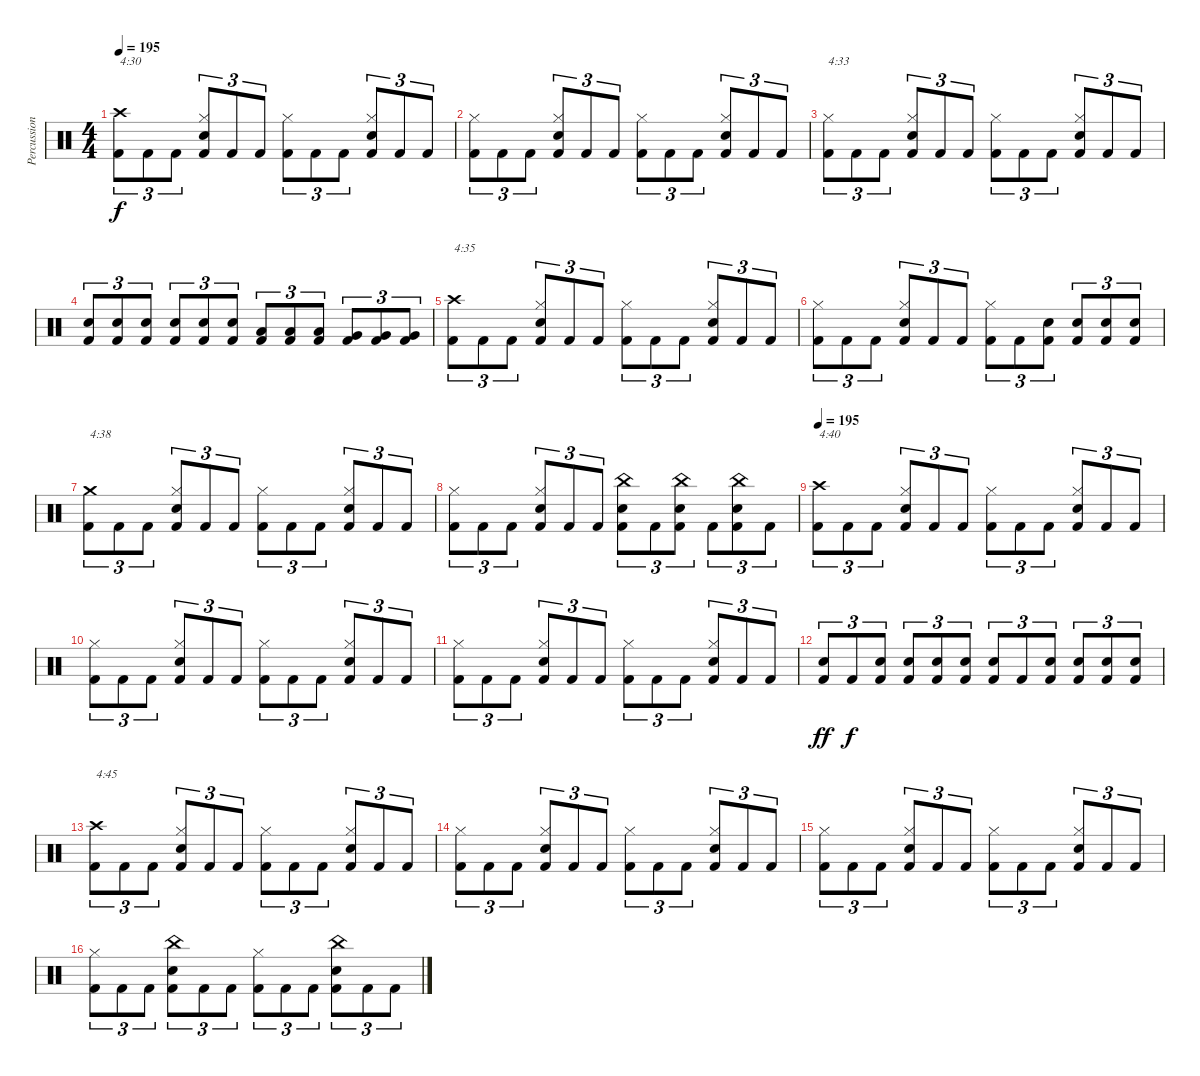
\track ("Percussion" "Percussion") {instrument percussion}
\staff {score}
\articulation defaults
\ts (4 4)
\tempo 195
\clef neutral
\ks c
("Crash high (hit)" "Kick (hit) 2").8{tu (3 2) txt "4:30" dy f} "Kick (hit) 2".8{tu (3 2)} "Kick (hit) 2".8{tu (3 2)} ("Hi-Hat (closed)" "Snare (hit) 2" "Kick (hit) 2").8{tu (3 2)} "Kick (hit) 2".8{tu (3 2)} "Kick (hit) 2".8{tu (3 2)} ("Hi-Hat (closed)" "Kick (hit) 2").8{tu (3 2)} "Kick (hit) 2".8{tu (3 2)} "Kick (hit) 2".8{tu (3 2)} ("Hi-Hat (closed)" "Snare (hit) 2" "Kick (hit) 2").8{tu (3 2)} "Kick (hit) 2".8{tu (3 2)} "Kick (hit) 2".8{tu (3 2)} |
("Hi-Hat (closed)" "Kick (hit) 2").8{tu (3 2)} "Kick (hit) 2".8{tu (3 2)} "Kick (hit) 2".8{tu (3 2)} ("Hi-Hat (closed)" "Snare (hit) 2" "Kick (hit) 2").8{tu (3 2)} "Kick (hit) 2".8{tu (3 2)} "Kick (hit) 2".8{tu (3 2)} ("Hi-Hat (closed)" "Kick (hit) 2").8{tu (3 2)} "Kick (hit) 2".8{tu (3 2)} "Kick (hit) 2".8{tu (3 2)} ("Hi-Hat (closed)" "Snare (hit) 2" "Kick (hit) 2").8{tu (3 2)} "Kick (hit) 2".8{tu (3 2)} "Kick (hit) 2".8{tu (3 2)} |
("Hi-Hat (closed)" "Kick (hit) 2").8{tu (3 2) txt "4:33"} "Kick (hit) 2".8{tu (3 2)} "Kick (hit) 2".8{tu (3 2)} ("Hi-Hat (closed)" "Snare (hit) 2" "Kick (hit) 2").8{tu (3 2)} "Kick (hit) 2".8{tu (3 2)} "Kick (hit) 2".8{tu (3 2)} ("Hi-Hat (closed)" "Kick (hit) 2").8{tu (3 2)} "Kick (hit) 2".8{tu (3 2)} "Kick (hit) 2".8{tu (3 2)} ("Hi-Hat (closed)" "Snare (hit) 2" "Kick (hit) 2").8{tu (3 2)} "Kick (hit) 2".8{tu (3 2)} "Kick (hit) 2".8{tu (3 2)} |
("Snare (hit) 2" "Kick (hit) 2").8{tu (3 2)} ("Snare (hit) 2" "Kick (hit) 2").8{tu (3 2)} ("Snare (hit) 2" "Kick (hit) 2").8{tu (3 2)} ("Snare (hit) 2" "Kick (hit) 2").8{tu (3 2)} ("Snare (hit) 2" "Kick (hit) 2").8{tu (3 2)} ("Snare (hit) 2" "Kick (hit) 2").8{tu (3 2)} ("Low Tom (hit)" "Kick (hit) 2").8{tu (3 2)} ("Low Tom (hit)" "Kick (hit) 2").8{tu (3 2)} ("Low Tom (hit)" "Kick (hit) 2").8{tu (3 2)} ("Very Low Tom (hit)" "Kick (hit) 2").8{tu (3 2)} ("Very Low Tom (hit)" "Kick (hit) 2").8{tu (3 2)} ("Very Low Tom (hit)" "Kick (hit) 2").8{tu (3 2)} |
("Crash high (hit)" "Kick (hit) 2").8{tu (3 2) txt "4:35"} "Kick (hit) 2".8{tu (3 2)} "Kick (hit) 2".8{tu (3 2)} ("Hi-Hat (closed)" "Snare (hit) 2" "Kick (hit) 2").8{tu (3 2)} "Kick (hit) 2".8{tu (3 2)} "Kick (hit) 2".8{tu (3 2)} ("Hi-Hat (closed)" "Kick (hit) 2").8{tu (3 2)} "Kick (hit) 2".8{tu (3 2)} "Kick (hit) 2".8{tu (3 2)} ("Hi-Hat (closed)" "Snare (hit) 2" "Kick (hit) 2").8{tu (3 2)} "Kick (hit) 2".8{tu (3 2)} "Kick (hit) 2".8{tu (3 2)} |
("Hi-Hat (closed)" "Kick (hit) 2").8{tu (3 2)} "Kick (hit) 2".8{tu (3 2)} "Kick (hit) 2".8{tu (3 2)} ("Hi-Hat (closed)" "Snare (hit) 2" "Kick (hit) 2").8{tu (3 2)} "Kick (hit) 2".8{tu (3 2)} "Kick (hit) 2".8{tu (3 2)} ("Hi-Hat (closed)" "Kick (hit) 2").8{tu (3 2)} "Kick (hit) 2".8{tu (3 2)} ("Snare (hit) 2" "Kick (hit) 2").8{tu (3 2)} ("Snare (hit) 2" "Kick (hit) 2").8{tu (3 2)} ("Snare (hit) 2" "Kick (hit) 2").8{tu (3 2)} ("Snare (hit) 2" "Kick (hit) 2").8{tu (3 2)} |
("Crash medium (hit)" "Kick (hit) 2").8{tu (3 2) txt "4:38"} "Kick (hit) 2".8{tu (3 2)} "Kick (hit) 2".8{tu (3 2)} ("Hi-Hat (closed)" "Snare (hit) 2" "Kick (hit) 2").8{tu (3 2)} "Kick (hit) 2".8{tu (3 2)} "Kick (hit) 2".8{tu (3 2)} ("Hi-Hat (closed)" "Kick (hit) 2").8{tu (3 2)} "Kick (hit) 2".8{tu (3 2)} "Kick (hit) 2".8{tu (3 2)} ("Hi-Hat (closed)" "Snare (hit) 2" "Kick (hit) 2").8{tu (3 2)} "Kick (hit) 2".8{tu (3 2)} "Kick (hit) 2".8{tu (3 2)} |
("Hi-Hat (closed)" "Kick (hit) 2").8{tu (3 2)} "Kick (hit) 2".8{tu (3 2)} "Kick (hit) 2".8{tu (3 2)} ("Hi-Hat (closed)" "Snare (hit) 2" "Kick (hit) 2").8{tu (3 2)} "Kick (hit) 2".8{tu (3 2)} "Kick (hit) 2".8{tu (3 2)} ("China (hit)" "Snare (hit) 2" "Kick (hit) 2").8{tu (3 2)} "Kick (hit) 2".8{tu (3 2)} ("China (hit)" "Snare (hit) 2" "Kick (hit) 2").8{tu (3 2)} "Kick (hit) 2".8{tu (3 2)} ("China (hit)" "Snare (hit) 2" "Kick (hit) 2").8{tu (3 2)} "Kick (hit) 2".8{tu (3 2)} |
\tempo 195
("Crash high (hit)" "Kick (hit) 2").8{tu (3 2) txt "4:40"} "Kick (hit) 2".8{tu (3 2)} "Kick (hit) 2".8{tu (3 2)} ("Hi-Hat (closed)" "Snare (hit) 2" "Kick (hit) 2").8{tu (3 2)} "Kick (hit) 2".8{tu (3 2)} "Kick (hit) 2".8{tu (3 2)} ("Hi-Hat (closed)" "Kick (hit) 2").8{tu (3 2)} "Kick (hit) 2".8{tu (3 2)} "Kick (hit) 2".8{tu (3 2)} ("Hi-Hat (closed)" "Snare (hit) 2" "Kick (hit) 2").8{tu (3 2)} "Kick (hit) 2".8{tu (3 2)} "Kick (hit) 2".8{tu (3 2)} |
("Hi-Hat (closed)" "Kick (hit) 2").8{tu (3 2)} "Kick (hit) 2".8{tu (3 2)} "Kick (hit) 2".8{tu (3 2)} ("Hi-Hat (closed)" "Snare (hit) 2" "Kick (hit) 2").8{tu (3 2)} "Kick (hit) 2".8{tu (3 2)} "Kick (hit) 2".8{tu (3 2)} ("Hi-Hat (closed)" "Kick (hit) 2").8{tu (3 2)} "Kick (hit) 2".8{tu (3 2)} "Kick (hit) 2".8{tu (3 2)} ("Hi-Hat (closed)" "Snare (hit) 2" "Kick (hit) 2").8{tu (3 2)} "Kick (hit) 2".8{tu (3 2)} "Kick (hit) 2".8{tu (3 2)} |
("Hi-Hat (closed)" "Kick (hit) 2").8{tu (3 2)} "Kick (hit) 2".8{tu (3 2)} "Kick (hit) 2".8{tu (3 2)} ("Hi-Hat (closed)" "Snare (hit) 2" "Kick (hit) 2").8{tu (3 2)} "Kick (hit) 2".8{tu (3 2)} "Kick (hit) 2".8{tu (3 2)} ("Hi-Hat (closed)" "Kick (hit) 2").8{tu (3 2)} "Kick (hit) 2".8{tu (3 2)} "Kick (hit) 2".8{tu (3 2)} ("Hi-Hat (closed)" "Snare (hit) 2" "Kick (hit) 2").8{tu (3 2)} "Kick (hit) 2".8{tu (3 2)} "Kick (hit) 2".8{tu (3 2)} |
("Snare (hit) 2" "Kick (hit) 2").8{tu (3 2) dy ff} "Kick (hit) 2".8{tu (3 2) dy f} ("Snare (hit) 2" "Kick (hit) 2").8{tu (3 2)} ("Snare (hit) 2" "Kick (hit) 2").8{tu (3 2)} ("Snare (hit) 2" "Kick (hit) 2").8{tu (3 2)} ("Snare (hit) 2" "Kick (hit) 2").8{tu (3 2)} ("Snare (hit) 2" "Kick (hit) 2").8{tu (3 2)} "Kick (hit) 2".8{tu (3 2)} ("Snare (hit) 2" "Kick (hit) 2").8{tu (3 2)} ("Snare (hit) 2" "Kick (hit) 2").8{tu (3 2)} ("Snare (hit) 2" "Kick (hit) 2").8{tu (3 2)} ("Snare (hit) 2" "Kick (hit) 2").8{tu (3 2)} |
("Crash high (hit)" "Kick (hit) 2").8{tu (3 2) txt "4:45"} "Kick (hit) 2".8{tu (3 2)} "Kick (hit) 2".8{tu (3 2)} ("Hi-Hat (closed)" "Snare (hit) 2" "Kick (hit) 2").8{tu (3 2)} "Kick (hit) 2".8{tu (3 2)} "Kick (hit) 2".8{tu (3 2)} ("Hi-Hat (closed)" "Kick (hit) 2").8{tu (3 2)} "Kick (hit) 2".8{tu (3 2)} "Kick (hit) 2".8{tu (3 2)} ("Hi-Hat (closed)" "Snare (hit) 2" "Kick (hit) 2").8{tu (3 2)} "Kick (hit) 2".8{tu (3 2)} "Kick (hit) 2".8{tu (3 2)} |
("Hi-Hat (closed)" "Kick (hit) 2").8{tu (3 2)} "Kick (hit) 2".8{tu (3 2)} "Kick (hit) 2".8{tu (3 2)} ("Hi-Hat (closed)" "Snare (hit) 2" "Kick (hit) 2").8{tu (3 2)} "Kick (hit) 2".8{tu (3 2)} "Kick (hit) 2".8{tu (3 2)} ("Hi-Hat (closed)" "Kick (hit) 2").8{tu (3 2)} "Kick (hit) 2".8{tu (3 2)} "Kick (hit) 2".8{tu (3 2)} ("Hi-Hat (closed)" "Snare (hit) 2" "Kick (hit) 2").8{tu (3 2)} "Kick (hit) 2".8{tu (3 2)} "Kick (hit) 2".8{tu (3 2)} |
("Hi-Hat (closed)" "Kick (hit) 2").8{tu (3 2)} "Kick (hit) 2".8{tu (3 2)} "Kick (hit) 2".8{tu (3 2)} ("Hi-Hat (closed)" "Snare (hit) 2" "Kick (hit) 2").8{tu (3 2)} "Kick (hit) 2".8{tu (3 2)} "Kick (hit) 2".8{tu (3 2)} ("Hi-Hat (closed)" "Kick (hit) 2").8{tu (3 2)} "Kick (hit) 2".8{tu (3 2)} "Kick (hit) 2".8{tu (3 2)} ("Hi-Hat (closed)" "Snare (hit) 2" "Kick (hit) 2").8{tu (3 2)} "Kick (hit) 2".8{tu (3 2)} "Kick (hit) 2".8{tu (3 2)} |
("Hi-Hat (closed)" "Kick (hit) 2").8{tu (3 2)} "Kick (hit) 2".8{tu (3 2)} "Kick (hit) 2".8{tu (3 2)} ("China (hit)" "Snare (hit) 2" "Kick (hit) 2").8{tu (3 2)} "Kick (hit) 2".8{tu (3 2)} "Kick (hit) 2".8{tu (3 2)} ("Hi-Hat (closed)" "Kick (hit) 2").8{tu (3 2)} "Kick (hit) 2".8{tu (3 2)} "Kick (hit) 2".8{tu (3 2)} ("China (hit)" "Snare (hit) 2" "Kick (hit) 2").8{tu (3 2)} "Kick (hit) 2".8{tu (3 2)} "Kick (hit) 2".8{tu (3 2)}
